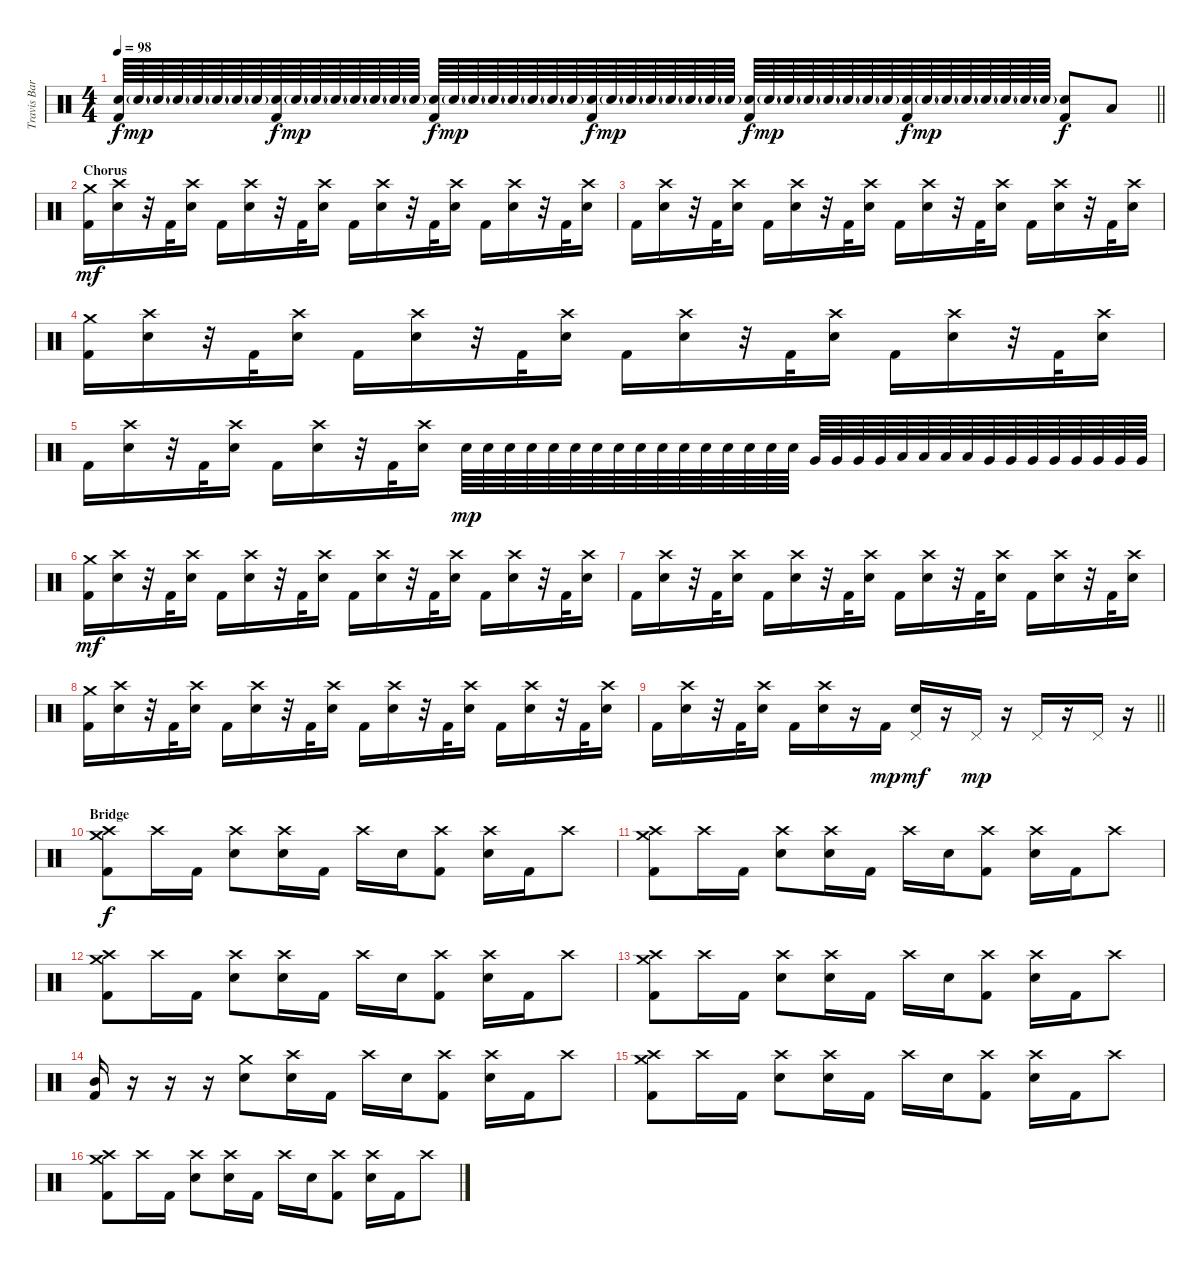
\track ("Travis Barker" "Travis Bar") {instrument percussion}
\staff {score}
\articulation defaults
\ts (4 4)
\tempo 98
\clef neutral
\barLineRight lightlight
\ks c
("Electric Snare (hit)" "Kick (hit) 2").64{dy f} "Electric Snare (hit)"{g}.64{dy mp} "Electric Snare (hit)"{g}.64 "Electric Snare (hit)"{g}.64 "Electric Snare (hit)"{g}.64 "Electric Snare (hit)"{g}.64 "Electric Snare (hit)"{g}.64 "Electric Snare (hit)"{g}.64 ("Electric Snare (hit)" "Kick (hit) 2").64{dy f} "Electric Snare (hit)"{g}.64{dy mp} "Electric Snare (hit)"{g}.64 "Electric Snare (hit)"{g}.64 "Electric Snare (hit)"{g}.64 "Electric Snare (hit)"{g}.64 "Electric Snare (hit)"{g}.64 "Electric Snare (hit)"{g}.64 ("Electric Snare (hit)" "Kick (hit) 2").64{dy f} "Electric Snare (hit)"{g}.64{dy mp} "Electric Snare (hit)"{g}.64 "Electric Snare (hit)"{g}.64 "Electric Snare (hit)"{g}.64 "Electric Snare (hit)"{g}.64 "Electric Snare (hit)"{g}.64 "Electric Snare (hit)"{g}.64 ("Electric Snare (hit)" "Kick (hit) 2").64{dy f} "Electric Snare (hit)"{g}.64{dy mp} "Electric Snare (hit)"{g}.64 "Electric Snare (hit)"{g}.64 "Electric Snare (hit)"{g}.64 "Electric Snare (hit)"{g}.64 "Electric Snare (hit)"{g}.64 "Electric Snare (hit)"{g}.64 ("Electric Snare (hit)" "Kick (hit) 2").64{dy f} "Electric Snare (hit)"{g}.64{dy mp} "Electric Snare (hit)"{g}.64 "Electric Snare (hit)"{g}.64 "Electric Snare (hit)"{g}.64 "Electric Snare (hit)"{g}.64 "Electric Snare (hit)"{g}.64 "Electric Snare (hit)"{g}.64 ("Electric Snare (hit)" "Kick (hit) 2").64{dy f} "Electric Snare (hit)"{g}.64{dy mp} "Electric Snare (hit)"{g}.64 "Electric Snare (hit)"{g}.64 "Electric Snare (hit)"{g}.64 "Electric Snare (hit)"{g}.64 "Electric Snare (hit)"{g}.64 "Electric Snare (hit)"{g}.64 ("Electric Snare (hit)" "Kick (hit) 2").8{dy f} "Low Tom (hit)".8 |
\section ("" "Chorus")
("Crash medium (hit)" "Kick (hit) 2").16{dy mf volume 14} ("Crash high (hit)" "Electric Snare (hit)").16 r.32 "Kick (hit) 2".32 ("Crash high (hit)" "Electric Snare (hit)").16 "Kick (hit) 2".16 ("Crash high (hit)" "Electric Snare (hit)").16 r.32 "Kick (hit) 2".32 ("Crash high (hit)" "Electric Snare (hit)").16 "Kick (hit) 2".16 ("Crash high (hit)" "Electric Snare (hit)").16 r.32 "Kick (hit) 2".32 ("Crash high (hit)" "Electric Snare (hit)").16 "Kick (hit) 2".16 ("Crash high (hit)" "Electric Snare (hit)").16 r.32 "Kick (hit) 2".32 ("Crash high (hit)" "Electric Snare (hit)").16 |
"Kick (hit) 2".16 ("Crash high (hit)" "Electric Snare (hit)").16 r.32 "Kick (hit) 2".32 ("Crash high (hit)" "Electric Snare (hit)").16 "Kick (hit) 2".16 ("Crash high (hit)" "Electric Snare (hit)").16 r.32 "Kick (hit) 2".32 ("Crash high (hit)" "Electric Snare (hit)").16 "Kick (hit) 2".16 ("Crash high (hit)" "Electric Snare (hit)").16 r.32 "Kick (hit) 2".32 ("Crash high (hit)" "Electric Snare (hit)").16 "Kick (hit) 2".16 ("Crash high (hit)" "Electric Snare (hit)").16 r.32 "Kick (hit) 2".32 ("Crash high (hit)" "Electric Snare (hit)").16 |
("Crash medium (hit)" "Kick (hit) 2").16 ("Crash high (hit)" "Electric Snare (hit)").16 r.32 "Kick (hit) 2".32 ("Crash high (hit)" "Electric Snare (hit)").16 "Kick (hit) 2".16 ("Crash high (hit)" "Electric Snare (hit)").16 r.32 "Kick (hit) 2".32 ("Crash high (hit)" "Electric Snare (hit)").16 "Kick (hit) 2".16 ("Crash high (hit)" "Electric Snare (hit)").16 r.32 "Kick (hit) 2".32 ("Crash high (hit)" "Electric Snare (hit)").16 "Kick (hit) 2".16 ("Crash high (hit)" "Electric Snare (hit)").16 r.32 "Kick (hit) 2".32 ("Crash high (hit)" "Electric Snare (hit)").16 |
"Kick (hit) 2".16 ("Crash high (hit)" "Electric Snare (hit)").16 r.32 "Kick (hit) 2".32 ("Crash high (hit)" "Electric Snare (hit)").16 "Kick (hit) 2".16 ("Crash high (hit)" "Electric Snare (hit)").16 r.32 "Kick (hit) 2".32 ("Crash high (hit)" "Electric Snare (hit)").16 "Electric Snare (hit)".64{dy mp} "Electric Snare (hit)".64 "Electric Snare (hit)".64 "Electric Snare (hit)".64 "Electric Snare (hit)".64 "Electric Snare (hit)".64 "Electric Snare (hit)".64 "Electric Snare (hit)".64 "Electric Snare (hit)".64 "Electric Snare (hit)".64 "Electric Snare (hit)".64 "Electric Snare (hit)".64 "Electric Snare (hit)".64 "Electric Snare (hit)".64 "Electric Snare (hit)".64 "Electric Snare (hit)".64 "Very Low Tom (hit)".64 "Very Low Tom (hit)".64 "Very Low Tom (hit)".64 "Very Low Tom (hit)".64 "Low Tom (hit)".64 "Low Tom (hit)".64 "Low Tom (hit)".64 "Low Tom (hit)".64 "Very Low Tom (hit)".64 "Very Low Tom (hit)".64 "Very Low Tom (hit)".64 "Very Low Tom (hit)".64 "Very Low Tom (hit)".64 "Very Low Tom (hit)".64 "Very Low Tom (hit)".64 "Very Low Tom (hit)".64 |
("Crash medium (hit)" "Kick (hit) 2").16{dy mf} ("Crash high (hit)" "Electric Snare (hit)").16 r.32 "Kick (hit) 2".32 ("Crash high (hit)" "Electric Snare (hit)").16 "Kick (hit) 2".16 ("Crash high (hit)" "Electric Snare (hit)").16 r.32 "Kick (hit) 2".32 ("Crash high (hit)" "Electric Snare (hit)").16 "Kick (hit) 2".16 ("Crash high (hit)" "Electric Snare (hit)").16 r.32 "Kick (hit) 2".32 ("Crash high (hit)" "Electric Snare (hit)").16 "Kick (hit) 2".16 ("Crash high (hit)" "Electric Snare (hit)").16 r.32 "Kick (hit) 2".32 ("Crash high (hit)" "Electric Snare (hit)").16 |
"Kick (hit) 2".16 ("Crash high (hit)" "Electric Snare (hit)").16 r.32 "Kick (hit) 2".32 ("Crash high (hit)" "Electric Snare (hit)").16 "Kick (hit) 2".16 ("Crash high (hit)" "Electric Snare (hit)").16 r.32 "Kick (hit) 2".32 ("Crash high (hit)" "Electric Snare (hit)").16 "Kick (hit) 2".16 ("Crash high (hit)" "Electric Snare (hit)").16 r.32 "Kick (hit) 2".32 ("Crash high (hit)" "Electric Snare (hit)").16 "Kick (hit) 2".16 ("Crash high (hit)" "Electric Snare (hit)").16 r.32 "Kick (hit) 2".32 ("Crash high (hit)" "Electric Snare (hit)").16 |
("Crash medium (hit)" "Kick (hit) 2").16 ("Crash high (hit)" "Electric Snare (hit)").16 r.32 "Kick (hit) 2".32 ("Crash high (hit)" "Electric Snare (hit)").16 "Kick (hit) 2".16 ("Crash high (hit)" "Electric Snare (hit)").16 r.32 "Kick (hit) 2".32 ("Crash high (hit)" "Electric Snare (hit)").16 "Kick (hit) 2".16 ("Crash high (hit)" "Electric Snare (hit)").16 r.32 "Kick (hit) 2".32 ("Crash high (hit)" "Electric Snare (hit)").16 "Kick (hit) 2".16 ("Crash high (hit)" "Electric Snare (hit)").16 r.32 "Kick (hit) 2".32 ("Crash high (hit)" "Electric Snare (hit)").16 |
\barLineRight lightlight "Kick (hit) 2".16
("Crash high (hit)" "Electric Snare (hit)").16 r.32 "Kick (hit) 2".32 ("Crash high (hit)" "Electric Snare (hit)").16 "Kick (hit) 2".16 ("Crash high (hit)" "Electric Snare (hit)").16 r.16 "Kick (hit) 2".16{dy mp} ("Pedal Hi-Hat (hit)" "Electric Snare (hit)").16{dy mf} r.16 "Pedal Hi-Hat (hit)".16{dy mp} r.16 "Pedal Hi-Hat (hit)".16 r.16 "Pedal Hi-Hat (hit)".16 r.16 |
\section ("" "Bridge")
("Crash medium (hit)" "Crash high (hit)" "Kick (hit) 2").8{dy f} "Crash high (hit)".16 "Kick (hit) 2".16 ("Crash high (hit)" "Electric Snare (hit)").8 ("Crash high (hit)" "Electric Snare (hit)").16 "Kick (hit) 2".16 "Crash high (hit)".16 "Electric Snare (hit)".16 ("Crash high (hit)" "Kick (hit) 2").8 ("Crash high (hit)" "Electric Snare (hit)").16 "Kick (hit) 2".16 "Crash high (hit)".8 |
("Crash medium (hit)" "Crash high (hit)" "Kick (hit) 2").8 "Crash high (hit)".16 "Kick (hit) 2".16 ("Crash high (hit)" "Electric Snare (hit)").8 ("Crash high (hit)" "Electric Snare (hit)").16 "Kick (hit) 2".16 "Crash high (hit)".16 "Electric Snare (hit)".16 ("Crash high (hit)" "Kick (hit) 2").8 ("Crash high (hit)" "Electric Snare (hit)").16 "Kick (hit) 2".16 "Crash high (hit)".8 |
("Crash medium (hit)" "Crash high (hit)" "Kick (hit) 2").8 "Crash high (hit)".16 "Kick (hit) 2".16 ("Crash high (hit)" "Electric Snare (hit)").8 ("Crash high (hit)" "Electric Snare (hit)").16 "Kick (hit) 2".16 "Crash high (hit)".16 "Electric Snare (hit)".16 ("Crash high (hit)" "Kick (hit) 2").8 ("Crash high (hit)" "Electric Snare (hit)").16 "Kick (hit) 2".16 "Crash high (hit)".8 |
("Crash medium (hit)" "Crash high (hit)" "Kick (hit) 2").8 "Crash high (hit)".16 "Kick (hit) 2".16 ("Crash high (hit)" "Electric Snare (hit)").8 ("Crash high (hit)" "Electric Snare (hit)").16 "Kick (hit) 2".16 "Crash high (hit)".16 "Electric Snare (hit)".16 ("Crash high (hit)" "Kick (hit) 2").8 ("Crash high (hit)" "Electric Snare (hit)").16 "Kick (hit) 2".16 "Crash high (hit)".8 |
("Mid Tom (hit)" "Kick (hit) 2").16 r.16 r.16 r.16 ("Crash medium (hit)" "Electric Snare (hit)").8 ("Crash high (hit)" "Electric Snare (hit)").16 "Kick (hit) 2".16 "Crash high (hit)".16 "Electric Snare (hit)".16 ("Crash high (hit)" "Kick (hit) 2").8 ("Crash high (hit)" "Electric Snare (hit)").16 "Kick (hit) 2".16 "Crash high (hit)".8 |
("Crash medium (hit)" "Crash high (hit)" "Kick (hit) 2").8 "Crash high (hit)".16 "Kick (hit) 2".16 ("Crash high (hit)" "Electric Snare (hit)").8 ("Crash high (hit)" "Electric Snare (hit)").16 "Kick (hit) 2".16 "Crash high (hit)".16 "Electric Snare (hit)".16 ("Crash high (hit)" "Kick (hit) 2").8 ("Crash high (hit)" "Electric Snare (hit)").16 "Kick (hit) 2".16 "Crash high (hit)".8 |
("Crash medium (hit)" "Crash high (hit)" "Kick (hit) 2").8 "Crash high (hit)".16 "Kick (hit) 2".16 ("Crash high (hit)" "Electric Snare (hit)").8 ("Crash high (hit)" "Electric Snare (hit)").16 "Kick (hit) 2".16 "Crash high (hit)".16 "Electric Snare (hit)".16 ("Crash high (hit)" "Kick (hit) 2").8 ("Crash high (hit)" "Electric Snare (hit)").16 "Kick (hit) 2".16 "Crash high (hit)".8
